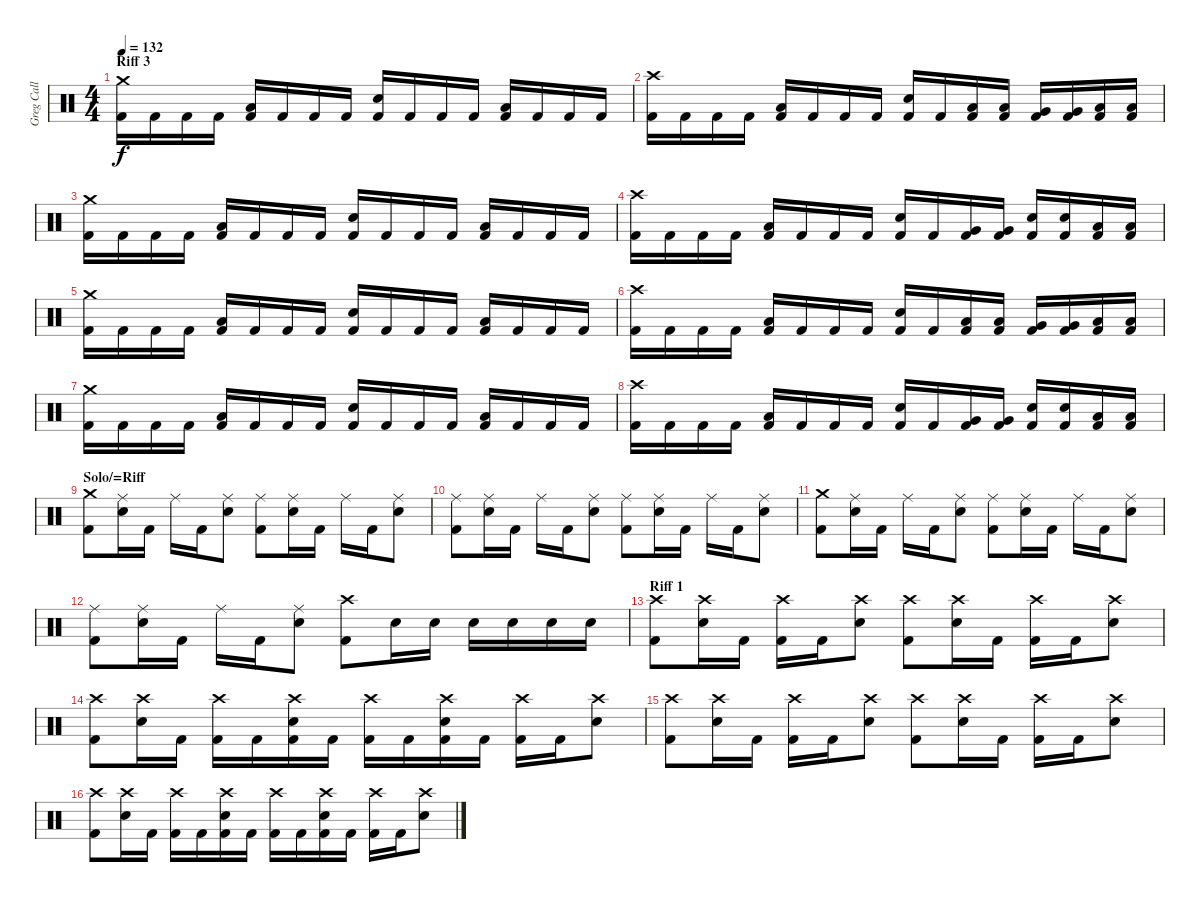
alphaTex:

\track ("Greg Call >>Drums" "Greg Call ") {instrument percussion}
\staff {score}
\articulation defaults
\ts (4 4)
\section ("" "Riff 3")
\tempo 132
\clef neutral
\ks c
("Crash medium (hit)" "Kick (hit) 2").16{dy f} "Kick (hit) 2".16 "Kick (hit) 2".16 "Kick (hit) 2".16 ("Low Floor Tom (hit)" "Kick (hit) 2").16 "Kick (hit) 2".16 "Kick (hit) 2".16 "Kick (hit) 2".16 ("Snare (hit) 2" "Kick (hit) 2").16 "Kick (hit) 2".16 "Kick (hit) 2".16 "Kick (hit) 2".16 ("Low Floor Tom (hit)" "Kick (hit) 2").16 "Kick (hit) 2".16 "Kick (hit) 2".16 "Kick (hit) 2".16 |
("Crash high (hit)" "Kick (hit) 2").16 "Kick (hit) 2".16 "Kick (hit) 2".16 "Kick (hit) 2".16 ("Low Floor Tom (hit)" "Kick (hit) 2").16 "Kick (hit) 2".16 "Kick (hit) 2".16 "Kick (hit) 2".16 ("Snare (hit) 2" "Kick (hit) 2").16 "Kick (hit) 2".16 ("Low Tom (hit)" "Kick (hit) 2").16 ("Low Tom (hit)" "Kick (hit) 2").16 ("Very Low Tom (hit)" "Kick (hit) 2").16 ("Very Low Tom (hit)" "Kick (hit) 2").16 ("Low Floor Tom (hit)" "Kick (hit) 2").16 ("Low Floor Tom (hit)" "Kick (hit) 2").16 |
("Crash medium (hit)" "Kick (hit) 2").16 "Kick (hit) 2".16 "Kick (hit) 2".16 "Kick (hit) 2".16 ("Low Floor Tom (hit)" "Kick (hit) 2").16 "Kick (hit) 2".16 "Kick (hit) 2".16 "Kick (hit) 2".16 ("Snare (hit) 2" "Kick (hit) 2").16 "Kick (hit) 2".16 "Kick (hit) 2".16 "Kick (hit) 2".16 ("Low Floor Tom (hit)" "Kick (hit) 2").16 "Kick (hit) 2".16 "Kick (hit) 2".16 "Kick (hit) 2".16 |
("Crash high (hit)" "Kick (hit) 2").16 "Kick (hit) 2".16 "Kick (hit) 2".16 "Kick (hit) 2".16 ("Low Floor Tom (hit)" "Kick (hit) 2").16 "Kick (hit) 2".16 "Kick (hit) 2".16 "Kick (hit) 2".16 ("Snare (hit) 2" "Kick (hit) 2").16 "Kick (hit) 2".16 ("Very Low Tom (hit)" "Kick (hit) 2").16 ("Very Low Tom (hit)" "Kick (hit) 2").16 ("Snare (hit) 2" "Kick (hit) 2").16 ("Snare (hit) 2" "Kick (hit) 2").16 ("Low Floor Tom (hit)" "Kick (hit) 2").16 ("Low Floor Tom (hit)" "Kick (hit) 2").16 |
("Crash medium (hit)" "Kick (hit) 2").16 "Kick (hit) 2".16 "Kick (hit) 2".16 "Kick (hit) 2".16 ("Low Floor Tom (hit)" "Kick (hit) 2").16 "Kick (hit) 2".16 "Kick (hit) 2".16 "Kick (hit) 2".16 ("Snare (hit) 2" "Kick (hit) 2").16 "Kick (hit) 2".16 "Kick (hit) 2".16 "Kick (hit) 2".16 ("Low Floor Tom (hit)" "Kick (hit) 2").16 "Kick (hit) 2".16 "Kick (hit) 2".16 "Kick (hit) 2".16 |
("Crash high (hit)" "Kick (hit) 2").16 "Kick (hit) 2".16 "Kick (hit) 2".16 "Kick (hit) 2".16 ("Low Floor Tom (hit)" "Kick (hit) 2").16 "Kick (hit) 2".16 "Kick (hit) 2".16 "Kick (hit) 2".16 ("Snare (hit) 2" "Kick (hit) 2").16 "Kick (hit) 2".16 ("Low Tom (hit)" "Kick (hit) 2").16 ("Low Tom (hit)" "Kick (hit) 2").16 ("Very Low Tom (hit)" "Kick (hit) 2").16 ("Very Low Tom (hit)" "Kick (hit) 2").16 ("Low Floor Tom (hit)" "Kick (hit) 2").16 ("Low Floor Tom (hit)" "Kick (hit) 2").16 |
("Crash medium (hit)" "Kick (hit) 2").16 "Kick (hit) 2".16 "Kick (hit) 2".16 "Kick (hit) 2".16 ("Low Floor Tom (hit)" "Kick (hit) 2").16 "Kick (hit) 2".16 "Kick (hit) 2".16 "Kick (hit) 2".16 ("Snare (hit) 2" "Kick (hit) 2").16 "Kick (hit) 2".16 "Kick (hit) 2".16 "Kick (hit) 2".16 ("Low Floor Tom (hit)" "Kick (hit) 2").16 "Kick (hit) 2".16 "Kick (hit) 2".16 "Kick (hit) 2".16 |
("Crash high (hit)" "Kick (hit) 2").16 "Kick (hit) 2".16 "Kick (hit) 2".16 "Kick (hit) 2".16 ("Low Floor Tom (hit)" "Kick (hit) 2").16 "Kick (hit) 2".16 "Kick (hit) 2".16 "Kick (hit) 2".16 ("Snare (hit) 2" "Kick (hit) 2").16 "Kick (hit) 2".16 ("Very Low Tom (hit)" "Kick (hit) 2").16 ("Very Low Tom (hit)" "Kick (hit) 2").16 ("Snare (hit) 2" "Kick (hit) 2").16 ("Snare (hit) 2" "Kick (hit) 2").16 ("Low Floor Tom (hit)" "Kick (hit) 2").16 ("Low Floor Tom (hit)" "Kick (hit) 2").16 |
\section ("" "Solo/=Riff")
("Crash medium (hit)" "Kick (hit) 2").8 ("Ride (middle)" "Snare (hit) 2").16 "Kick (hit) 2".16 "Ride (middle)".16 "Kick (hit) 2".16 ("Ride (middle)" "Snare (hit) 2").8 ("Ride (middle)" "Kick (hit) 2").8 ("Ride (middle)" "Snare (hit) 2").16 "Kick (hit) 2".16 "Ride (middle)".16 "Kick (hit) 2".16 ("Ride (middle)" "Snare (hit) 2").8 |
("Ride (middle)" "Kick (hit) 2").8 ("Ride (middle)" "Snare (hit) 2").16 "Kick (hit) 2".16 "Ride (middle)".16 "Kick (hit) 2".16 ("Ride (middle)" "Snare (hit) 2").8 ("Ride (middle)" "Kick (hit) 2").8 ("Ride (middle)" "Snare (hit) 2").16 "Kick (hit) 2".16 "Ride (middle)".16 "Kick (hit) 2".16 ("Ride (middle)" "Snare (hit) 2").8 |
("Crash medium (hit)" "Kick (hit) 2").8 ("Ride (middle)" "Snare (hit) 2").16 "Kick (hit) 2".16 "Ride (middle)".16 "Kick (hit) 2".16 ("Ride (middle)" "Snare (hit) 2").8 ("Ride (middle)" "Kick (hit) 2").8 ("Ride (middle)" "Snare (hit) 2").16 "Kick (hit) 2".16 "Ride (middle)".16 "Kick (hit) 2".16 ("Ride (middle)" "Snare (hit) 2").8 |
("Ride (middle)" "Kick (hit) 2").8 ("Ride (middle)" "Snare (hit) 2").16 "Kick (hit) 2".16 "Ride (middle)".16 "Kick (hit) 2".16 ("Ride (middle)" "Snare (hit) 2").8 ("Crash high (hit)" "Kick (hit) 2").8 "Snare (hit) 2".16 "Snare (hit) 2".16 "Snare (hit) 2".16 "Snare (hit) 2".16 "Snare (hit) 2".16 "Snare (hit) 2".16 |
\section ("" "Riff 1")
("Crash high (hit)" "Kick (hit) 2").8 ("Crash high (hit)" "Snare (hit) 2").16 "Kick (hit) 2".16 ("Crash high (hit)" "Kick (hit) 2").16 "Kick (hit) 2".16 ("Crash high (hit)" "Snare (hit) 2").8 ("Crash high (hit)" "Kick (hit) 2").8 ("Crash high (hit)" "Snare (hit) 2").16 "Kick (hit) 2".16 ("Crash high (hit)" "Kick (hit) 2").16 "Kick (hit) 2".16 ("Crash high (hit)" "Snare (hit) 2").8 |
("Crash high (hit)" "Kick (hit) 2").8 ("Crash high (hit)" "Snare (hit) 2").16 "Kick (hit) 2".16 ("Crash high (hit)" "Kick (hit) 2").16 "Kick (hit) 2".16 ("Crash high (hit)" "Snare (hit) 2" "Kick (hit) 2").16 "Kick (hit) 2".16 ("Crash high (hit)" "Kick (hit) 2").16 "Kick (hit) 2".16 ("Crash high (hit)" "Snare (hit) 2" "Kick (hit) 2").16 "Kick (hit) 2".16 ("Crash high (hit)" "Kick (hit) 2").16 "Kick (hit) 2".16 ("Crash high (hit)" "Snare (hit) 2").8 |
("Crash high (hit)" "Kick (hit) 2").8 ("Crash high (hit)" "Snare (hit) 2").16 "Kick (hit) 2".16 ("Crash high (hit)" "Kick (hit) 2").16 "Kick (hit) 2".16 ("Crash high (hit)" "Snare (hit) 2").8 ("Crash high (hit)" "Kick (hit) 2").8 ("Crash high (hit)" "Snare (hit) 2").16 "Kick (hit) 2".16 ("Crash high (hit)" "Kick (hit) 2").16 "Kick (hit) 2".16 ("Crash high (hit)" "Snare (hit) 2").8 |
("Crash high (hit)" "Kick (hit) 2").8 ("Crash high (hit)" "Snare (hit) 2").16 "Kick (hit) 2".16 ("Crash high (hit)" "Kick (hit) 2").16 "Kick (hit) 2".16 ("Crash high (hit)" "Snare (hit) 2" "Kick (hit) 2").16 "Kick (hit) 2".16 ("Crash high (hit)" "Kick (hit) 2").16 "Kick (hit) 2".16 ("Crash high (hit)" "Snare (hit) 2" "Kick (hit) 2").16 "Kick (hit) 2".16 ("Crash high (hit)" "Kick (hit) 2").16 "Kick (hit) 2".16 ("Crash high (hit)" "Snare (hit) 2").8
